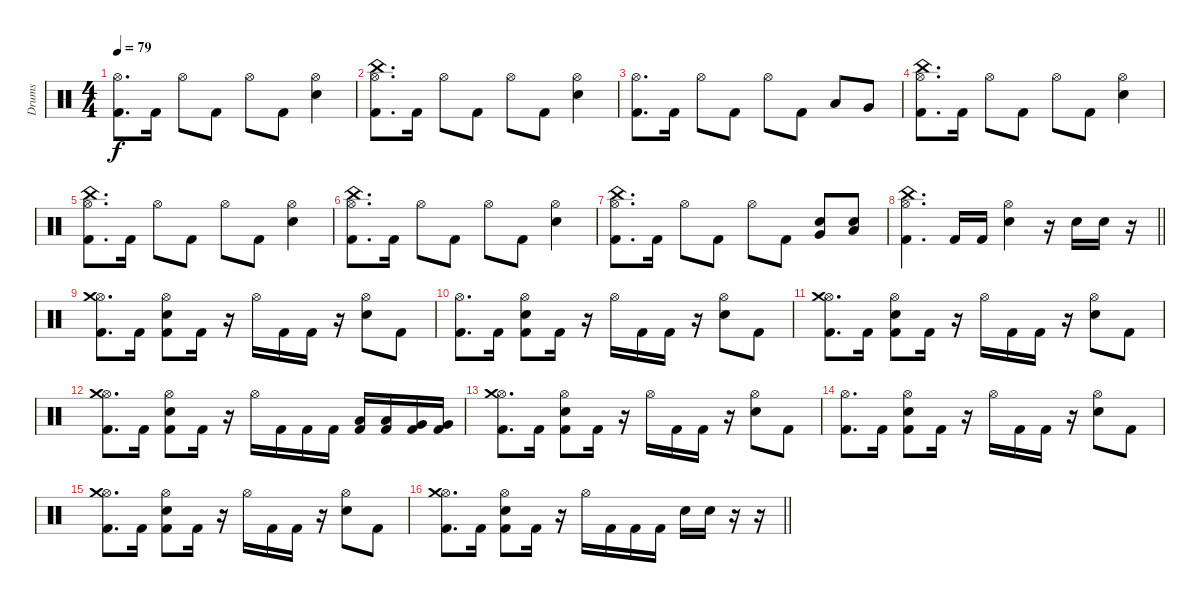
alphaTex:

\track ("Drums" "Drums") {instrument percussion}
\staff {score}
\articulation defaults
\ts (4 4)
\tempo 79
\clef neutral
\ks c
("Hi-Hat (open)" "Kick (hit) 2").8{d dy f} "Kick (hit) 2".16 "Hi-Hat (open)".8 "Kick (hit) 2".8 "Hi-Hat (open)".8 "Kick (hit) 2".8 ("Hi-Hat (open)" "Electric Snare (hit)").4 |
("Hi-Hat (open)" "China (hit)" "Kick (hit) 2").8{d} "Kick (hit) 2".16 "Hi-Hat (open)".8 "Kick (hit) 2".8 "Hi-Hat (open)".8 "Kick (hit) 2".8 ("Hi-Hat (open)" "Electric Snare (hit)").4 |
("Hi-Hat (open)" "Kick (hit) 2").8{d} "Kick (hit) 2".16 "Hi-Hat (open)".8 "Kick (hit) 2".8 "Hi-Hat (open)".8 "Kick (hit) 2".8 "Low Tom (hit)".8 "Very Low Tom (hit)".8 |
("Hi-Hat (open)" "China (hit)" "Kick (hit) 2").8{d} "Kick (hit) 2".16 "Hi-Hat (open)".8 "Kick (hit) 2".8 "Hi-Hat (open)".8 "Kick (hit) 2".8 ("Hi-Hat (open)" "Electric Snare (hit)").4 |
("Hi-Hat (open)" "China (hit)" "Kick (hit) 2").8{d} "Kick (hit) 2".16 "Hi-Hat (open)".8 "Kick (hit) 2".8 "Hi-Hat (open)".8 "Kick (hit) 2".8 ("Hi-Hat (open)" "Electric Snare (hit)").4 |
("Hi-Hat (open)" "China (hit)" "Kick (hit) 2").8{d} "Kick (hit) 2".16 "Hi-Hat (open)".8 "Kick (hit) 2".8 "Hi-Hat (open)".8 "Kick (hit) 2".8 ("Hi-Hat (open)" "Electric Snare (hit)").4 |
("Hi-Hat (open)" "China (hit)" "Kick (hit) 2").8{d} "Kick (hit) 2".16 "Hi-Hat (open)".8 "Kick (hit) 2".8 "Hi-Hat (open)".8 "Kick (hit) 2".8 ("Electric Snare (hit)" "Very Low Tom (hit)").8 ("Electric Snare (hit)" "Low Tom (hit)").8 |
\barLineRight lightlight
("Hi-Hat (open)" "China (hit)" "Kick (hit) 2").4{d} "Kick (hit) 2".16 "Kick (hit) 2".16 ("Hi-Hat (open)" "Electric Snare (hit)").4 r.16 "Electric Snare (hit)".16 "Electric Snare (hit)".16 r.16 |
("Hi-Hat (open)" "Crash medium (hit)" "Kick (hit) 2").8{d} "Kick (hit) 2".16 ("Hi-Hat (open)" "Electric Snare (hit)" "Kick (hit) 2").8 "Kick (hit) 2".16 r.16 "Hi-Hat (open)".16 "Kick (hit) 2".16 "Kick (hit) 2".16 r.16 ("Hi-Hat (open)" "Electric Snare (hit)").8 "Kick (hit) 2".8 |
("Hi-Hat (open)" "Kick (hit) 2").8{d} "Kick (hit) 2".16 ("Hi-Hat (open)" "Electric Snare (hit)" "Kick (hit) 2").8 "Kick (hit) 2".16 r.16 "Hi-Hat (open)".16 "Kick (hit) 2".16 "Kick (hit) 2".16 r.16 ("Hi-Hat (open)" "Electric Snare (hit)").8 "Kick (hit) 2".8 |
("Hi-Hat (open)" "Crash medium (hit)" "Kick (hit) 2").8{d} "Kick (hit) 2".16 ("Hi-Hat (open)" "Electric Snare (hit)" "Kick (hit) 2").8 "Kick (hit) 2".16 r.16 "Hi-Hat (open)".16 "Kick (hit) 2".16 "Kick (hit) 2".16 r.16 ("Hi-Hat (open)" "Electric Snare (hit)").8 "Kick (hit) 2".8 |
("Hi-Hat (open)" "Crash medium (hit)" "Kick (hit) 2").8{d} "Kick (hit) 2".16 ("Hi-Hat (open)" "Electric Snare (hit)" "Kick (hit) 2").8 "Kick (hit) 2".16 r.16 "Hi-Hat (open)".16 "Kick (hit) 2".16 "Kick (hit) 2".16 "Kick (hit) 2".16 ("Low Tom (hit)" "Kick (hit) 2").16 ("Low Tom (hit)" "Kick (hit) 2").16 ("Very Low Tom (hit)" "Kick (hit) 2").16 ("Very Low Tom (hit)" "Kick (hit) 2").16 |
("Hi-Hat (open)" "Crash medium (hit)" "Kick (hit) 2").8{d} "Kick (hit) 2".16 ("Hi-Hat (open)" "Electric Snare (hit)" "Kick (hit) 2").8 "Kick (hit) 2".16 r.16 "Hi-Hat (open)".16 "Kick (hit) 2".16 "Kick (hit) 2".16 r.16 ("Hi-Hat (open)" "Electric Snare (hit)").8 "Kick (hit) 2".8 |
("Hi-Hat (open)" "Kick (hit) 2").8{d} "Kick (hit) 2".16 ("Hi-Hat (open)" "Electric Snare (hit)" "Kick (hit) 2").8 "Kick (hit) 2".16 r.16 "Hi-Hat (open)".16 "Kick (hit) 2".16 "Kick (hit) 2".16 r.16 ("Hi-Hat (open)" "Electric Snare (hit)").8 "Kick (hit) 2".8 |
("Hi-Hat (open)" "Crash medium (hit)" "Kick (hit) 2").8{d} "Kick (hit) 2".16 ("Hi-Hat (open)" "Electric Snare (hit)" "Kick (hit) 2").8 "Kick (hit) 2".16 r.16 "Hi-Hat (open)".16 "Kick (hit) 2".16 "Kick (hit) 2".16 r.16 ("Hi-Hat (open)" "Electric Snare (hit)").8 "Kick (hit) 2".8 |
\barLineRight lightlight
("Hi-Hat (open)" "Crash medium (hit)" "Kick (hit) 2").8{d} "Kick (hit) 2".16 ("Hi-Hat (open)" "Electric Snare (hit)" "Kick (hit) 2").8 "Kick (hit) 2".16 r.16 "Hi-Hat (open)".16 "Kick (hit) 2".16 "Kick (hit) 2".16 "Kick (hit) 2".16 "Electric Snare (hit)".16 "Electric Snare (hit)".16 r.16 r.16
